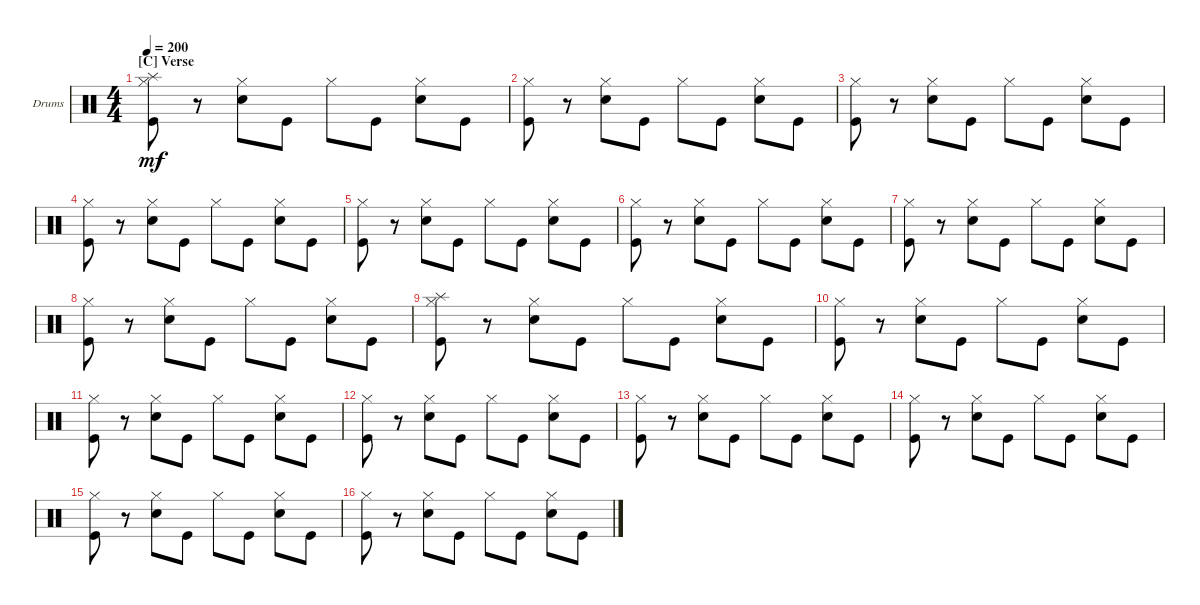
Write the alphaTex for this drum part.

\defaultSystemsLayout 4
\bracketExtendMode groupsimilarinstruments
\firstSystemTrackNameOrientation horizontal
\otherSystemsTrackNameOrientation horizontal
\track ("Prakarsh" "Drums") {instrument percussion}
\staff {score}
\articulation defaults
\ts (4 4)
\section ("C" "Verse")
\tempo 200
\clef neutral
\ks c
("Hi-Hat (closed)" "Kick (hit)" "Splash (hit)").8{dy mf} r.8 ("Hi-Hat (closed)" "Snare (hit) 2").8 "Kick (hit)".8 "Hi-Hat (closed)".8 "Kick (hit)".8 ("Hi-Hat (closed)" "Snare (hit) 2").8 "Kick (hit)".8 |
("Hi-Hat (closed)" "Kick (hit)").8 r.8 ("Hi-Hat (closed)" "Snare (hit) 2").8 "Kick (hit)".8 "Hi-Hat (closed)".8 "Kick (hit)".8 ("Hi-Hat (closed)" "Snare (hit) 2").8 "Kick (hit)".8 |
("Hi-Hat (closed)" "Kick (hit)").8 r.8 ("Hi-Hat (closed)" "Snare (hit) 2").8 "Kick (hit)".8 "Hi-Hat (closed)".8 "Kick (hit)".8 ("Hi-Hat (closed)" "Snare (hit) 2").8 "Kick (hit)".8 |
("Hi-Hat (closed)" "Kick (hit)").8 r.8 ("Hi-Hat (closed)" "Snare (hit) 2").8 "Kick (hit)".8 "Hi-Hat (closed)".8 "Kick (hit)".8 ("Hi-Hat (closed)" "Snare (hit) 2").8 "Kick (hit)".8 |
("Hi-Hat (closed)" "Kick (hit)").8 r.8 ("Hi-Hat (closed)" "Snare (hit) 2").8 "Kick (hit)".8 "Hi-Hat (closed)".8 "Kick (hit)".8 ("Hi-Hat (closed)" "Snare (hit) 2").8 "Kick (hit)".8 |
("Hi-Hat (closed)" "Kick (hit)").8 r.8 ("Hi-Hat (closed)" "Snare (hit) 2").8 "Kick (hit)".8 "Hi-Hat (closed)".8 "Kick (hit)".8 ("Hi-Hat (closed)" "Snare (hit) 2").8 "Kick (hit)".8 |
("Hi-Hat (closed)" "Kick (hit)").8 r.8 ("Hi-Hat (closed)" "Snare (hit) 2").8 "Kick (hit)".8 "Hi-Hat (closed)".8 "Kick (hit)".8 ("Hi-Hat (closed)" "Snare (hit) 2").8 "Kick (hit)".8 |
("Hi-Hat (closed)" "Kick (hit)").8 r.8 ("Hi-Hat (closed)" "Snare (hit) 2").8 "Kick (hit)".8 "Hi-Hat (closed)".8 "Kick (hit)".8 ("Hi-Hat (closed)" "Snare (hit) 2").8 "Kick (hit)".8 |
("Hi-Hat (closed)" "Kick (hit)" "Splash (hit)").8 r.8 ("Hi-Hat (closed)" "Snare (hit) 2").8 "Kick (hit)".8 "Hi-Hat (closed)".8 "Kick (hit)".8 ("Hi-Hat (closed)" "Snare (hit) 2").8 "Kick (hit)".8 |
("Hi-Hat (closed)" "Kick (hit)").8 r.8 ("Hi-Hat (closed)" "Snare (hit) 2").8 "Kick (hit)".8 "Hi-Hat (closed)".8 "Kick (hit)".8 ("Hi-Hat (closed)" "Snare (hit) 2").8 "Kick (hit)".8 |
("Hi-Hat (closed)" "Kick (hit)").8 r.8 ("Hi-Hat (closed)" "Snare (hit) 2").8 "Kick (hit)".8 "Hi-Hat (closed)".8 "Kick (hit)".8 ("Hi-Hat (closed)" "Snare (hit) 2").8 "Kick (hit)".8 |
("Hi-Hat (closed)" "Kick (hit)").8 r.8 ("Hi-Hat (closed)" "Snare (hit) 2").8 "Kick (hit)".8 "Hi-Hat (closed)".8 "Kick (hit)".8 ("Hi-Hat (closed)" "Snare (hit) 2").8 "Kick (hit)".8 |
("Hi-Hat (closed)" "Kick (hit)").8 r.8 ("Hi-Hat (closed)" "Snare (hit) 2").8 "Kick (hit)".8 "Hi-Hat (closed)".8 "Kick (hit)".8 ("Hi-Hat (closed)" "Snare (hit) 2").8 "Kick (hit)".8 |
("Hi-Hat (closed)" "Kick (hit)").8 r.8 ("Hi-Hat (closed)" "Snare (hit) 2").8 "Kick (hit)".8 "Hi-Hat (closed)".8 "Kick (hit)".8 ("Hi-Hat (closed)" "Snare (hit) 2").8 "Kick (hit)".8 |
("Hi-Hat (closed)" "Kick (hit)").8 r.8 ("Hi-Hat (closed)" "Snare (hit) 2").8 "Kick (hit)".8 "Hi-Hat (closed)".8 "Kick (hit)".8 ("Hi-Hat (closed)" "Snare (hit) 2").8 "Kick (hit)".8 |
("Hi-Hat (closed)" "Kick (hit)").8 r.8 ("Hi-Hat (closed)" "Snare (hit) 2").8 "Kick (hit)".8 "Hi-Hat (closed)".8 "Kick (hit)".8 ("Hi-Hat (closed)" "Snare (hit) 2").8 "Kick (hit)".8
